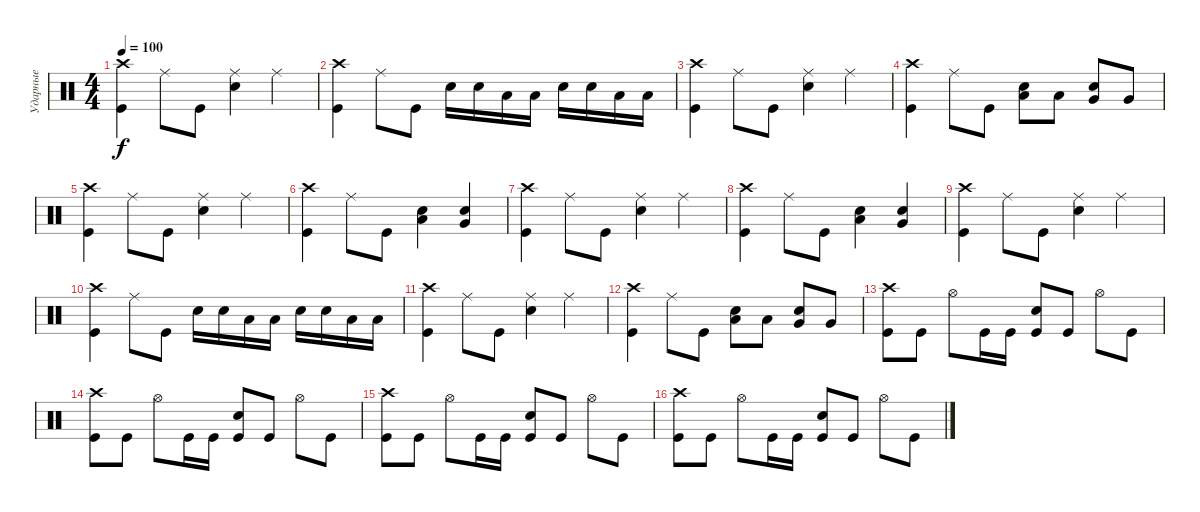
\track ("Ударные" "Ударные") {instrument percussion}
\staff {score}
\articulation defaults
\ts (4 4)
\tempo 100
\clef neutral
\ks c
("Crash high (hit)" "Kick (hit)").4{dy f} "Ride (middle)".8 "Kick (hit)".8 ("Ride (middle)" "Electric Snare (hit)").4 "Ride (middle)".4 |
("Crash high (hit)" "Kick (hit)").4 "Ride (middle)".8 "Kick (hit)".8 "Electric Snare (hit)".16 "Electric Snare (hit)".16 "Low Tom (hit)".16 "Low Tom (hit)".16 "Electric Snare (hit)".16 "Electric Snare (hit)".16 "Low Tom (hit)".16 "Low Tom (hit)".16 |
("Crash high (hit)" "Kick (hit)").4 "Ride (middle)".8 "Kick (hit)".8 ("Ride (middle)" "Electric Snare (hit)").4 "Ride (middle)".4 |
("Crash high (hit)" "Kick (hit)").4 "Ride (middle)".8 "Kick (hit)".8 ("Low Tom (hit)" "Electric Snare (hit)").8 "Low Tom (hit)".8 ("Very Low Tom (hit)" "Electric Snare (hit)").8 "Very Low Tom (hit)".8 |
("Crash high (hit)" "Kick (hit)").4 "Ride (middle)".8 "Kick (hit)".8 ("Ride (middle)" "Electric Snare (hit)").4 "Ride (middle)".4 |
("Crash high (hit)" "Kick (hit)").4 "Ride (middle)".8 "Kick (hit)".8 ("Low Tom (hit)" "Electric Snare (hit)").4 ("Very Low Tom (hit)" "Electric Snare (hit)").4 |
("Crash high (hit)" "Kick (hit)").4 "Ride (middle)".8 "Kick (hit)".8 ("Ride (middle)" "Electric Snare (hit)").4 "Ride (middle)".4 |
("Crash high (hit)" "Kick (hit)").4 "Ride (middle)".8 "Kick (hit)".8 ("Low Tom (hit)" "Electric Snare (hit)").4 ("Very Low Tom (hit)" "Electric Snare (hit)").4 |
("Crash high (hit)" "Kick (hit)").4 "Ride (middle)".8 "Kick (hit)".8 ("Ride (middle)" "Electric Snare (hit)").4 "Ride (middle)".4 |
("Crash high (hit)" "Kick (hit)").4 "Ride (middle)".8 "Kick (hit)".8 "Electric Snare (hit)".16 "Electric Snare (hit)".16 "Low Tom (hit)".16 "Low Tom (hit)".16 "Electric Snare (hit)".16 "Electric Snare (hit)".16 "Low Tom (hit)".16 "Low Tom (hit)".16 |
("Crash high (hit)" "Kick (hit)").4 "Ride (middle)".8 "Kick (hit)".8 ("Ride (middle)" "Electric Snare (hit)").4 "Ride (middle)".4 |
("Crash high (hit)" "Kick (hit)").4 "Ride (middle)".8 "Kick (hit)".8 ("Low Tom (hit)" "Electric Snare (hit)").8 "Low Tom (hit)".8 ("Very Low Tom (hit)" "Electric Snare (hit)").8 "Very Low Tom (hit)".8 |
("Crash high (hit)" "Kick (hit)").8 "Kick (hit)".8 "Hi-Hat (open)".8 "Kick (hit)".16 "Kick (hit)".16 ("Electric Snare (hit)" "Kick (hit)").8 "Kick (hit)".8 "Hi-Hat (open)".8 "Kick (hit)".8 |
("Crash high (hit)" "Kick (hit)").8 "Kick (hit)".8 "Hi-Hat (open)".8 "Kick (hit)".16 "Kick (hit)".16 ("Electric Snare (hit)" "Kick (hit)").8 "Kick (hit)".8 "Hi-Hat (open)".8 "Kick (hit)".8 |
("Crash high (hit)" "Kick (hit)").8 "Kick (hit)".8 "Hi-Hat (open)".8 "Kick (hit)".16 "Kick (hit)".16 ("Electric Snare (hit)" "Kick (hit)").8 "Kick (hit)".8 "Hi-Hat (open)".8 "Kick (hit)".8 |
("Crash high (hit)" "Kick (hit)").8 "Kick (hit)".8 "Hi-Hat (open)".8 "Kick (hit)".16 "Kick (hit)".16 ("Electric Snare (hit)" "Kick (hit)").8 "Kick (hit)".8 "Hi-Hat (open)".8 "Kick (hit)".8
